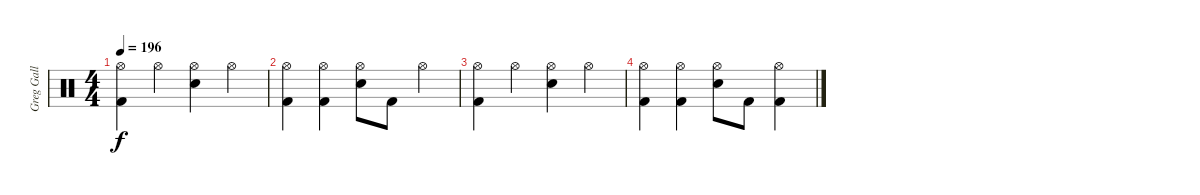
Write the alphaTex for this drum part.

\track ("Greg Gall" "Greg Gall") {instrument percussion}
\staff {score}
\articulation defaults
\ts (4 4)
\tempo 196
\clef neutral
\ks c
("Hi-Hat (open)" "Kick (hit) 2").4{dy f} "Hi-Hat (open)".4 ("Hi-Hat (open)" "Electric Snare (hit)").4 "Hi-Hat (open)".4 |
("Hi-Hat (open)" "Kick (hit) 2").4 ("Hi-Hat (open)" "Kick (hit) 2").4 ("Hi-Hat (open)" "Electric Snare (hit)").8 "Kick (hit) 2".8 "Hi-Hat (open)".4 |
("Hi-Hat (open)" "Kick (hit) 2").4 "Hi-Hat (open)".4 ("Hi-Hat (open)" "Electric Snare (hit)").4 "Hi-Hat (open)".4 |
("Hi-Hat (open)" "Kick (hit) 2").4 ("Hi-Hat (open)" "Kick (hit) 2").4 ("Hi-Hat (open)" "Electric Snare (hit)").8 "Kick (hit) 2".8 ("Hi-Hat (open)" "Kick (hit) 2").4
